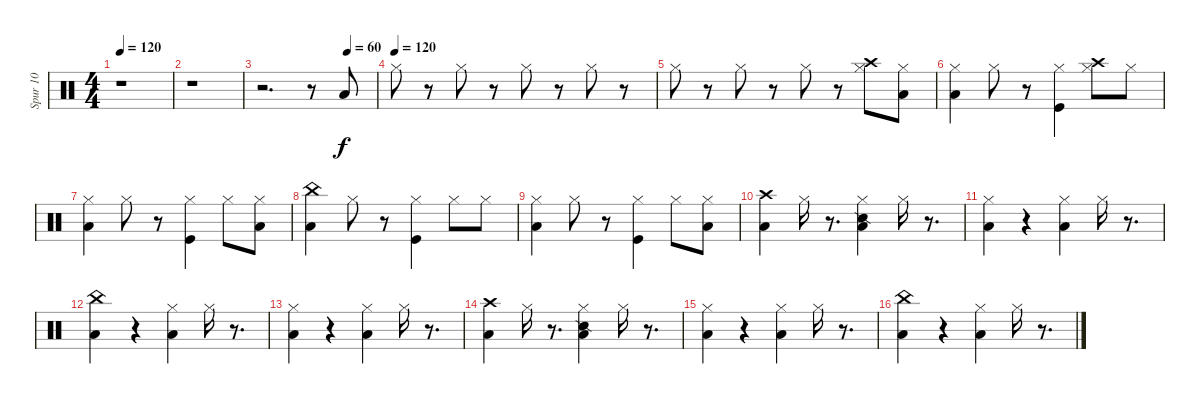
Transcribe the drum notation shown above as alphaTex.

\track ("Spur 10" "Spur 10") {instrument percussion}
\staff {score}
\articulation defaults
\ts (4 4)
\tempo 120
\clef neutral
\ks c
r.1{dy f} |
r.1 |
\tempo (60 0.75)
r.2{d} r.8 "Low Tom (hit)".8 |
\tempo (120)
"Hi-Hat (closed)".8 r.8 "Hi-Hat (closed)".8 r.8 "Hi-Hat (closed)".8 r.8 "Hi-Hat (closed)".8 r.8 |
"Hi-Hat (closed)".8 r.8 "Hi-Hat (closed)".8 r.8 "Hi-Hat (closed)".8 r.8 ("Hi-Hat (closed)" "Crash high (hit)").8 ("Low Tom (hit)" "Hi-Hat (closed)").8 |
("Low Floor Tom (hit)" "Hi-Hat (closed)").4 "Hi-Hat (closed)".8 r.8 ("Hi-Hat (closed)" "Kick (hit)").4 ("Hi-Hat (closed)" "Crash high (hit)").8 "Hi-Hat (closed)".8 |
("Hi-Hat (closed)" "Low Floor Tom (hit)").4 "Hi-Hat (closed)".8 r.8 ("Hi-Hat (closed)" "Kick (hit)").4 "Hi-Hat (closed)".8 ("Hi-Hat (closed)" "Low Tom (hit)").8 |
("Low Floor Tom (hit)" "China (hit)").4 "Hi-Hat (closed)".8 r.8 ("Hi-Hat (closed)" "Kick (hit)").4 "Hi-Hat (closed)".8 "Hi-Hat (closed)".8 |
("Hi-Hat (closed)" "Low Floor Tom (hit)").4 "Hi-Hat (closed)".8 r.8 ("Hi-Hat (closed)" "Kick (hit)").4 "Hi-Hat (closed)".8 ("Hi-Hat (closed)" "Low Tom (hit)").8 |
("Low Floor Tom (hit)" "Crash high (hit)").4 "Hi-Hat (closed)".16 r.8{d} ("Snare (side stick) 2" "Hi-Hat (closed)" "Low Tom (hit)").4 "Hi-Hat (closed)".16 r.8{d} |
("Hi-Hat (closed)" "Low Floor Tom (hit)").4 r.4 ("Hi-Hat (closed)" "Low Tom (hit)").4 "Hi-Hat (closed)".16 r.8{d} |
("Low Floor Tom (hit)" "China (hit)").4 r.4 ("Hi-Hat (closed)" "Low Tom (hit)").4 "Hi-Hat (closed)".16 r.8{d} |
("Hi-Hat (closed)" "Low Floor Tom (hit)").4 r.4 ("Hi-Hat (closed)" "Low Tom (hit)").4 "Hi-Hat (closed)".16 r.8{d} |
("Low Floor Tom (hit)" "Crash high (hit)").4 "Hi-Hat (closed)".16 r.8{d} ("Snare (side stick) 2" "Hi-Hat (closed)" "Low Tom (hit)").4 "Hi-Hat (closed)".16 r.8{d} |
("Hi-Hat (closed)" "Low Floor Tom (hit)").4 r.4 ("Hi-Hat (closed)" "Low Tom (hit)").4 "Hi-Hat (closed)".16 r.8{d} |
("Low Floor Tom (hit)" "China (hit)").4 r.4 ("Hi-Hat (closed)" "Low Tom (hit)").4 "Hi-Hat (closed)".16 r.8{d}
